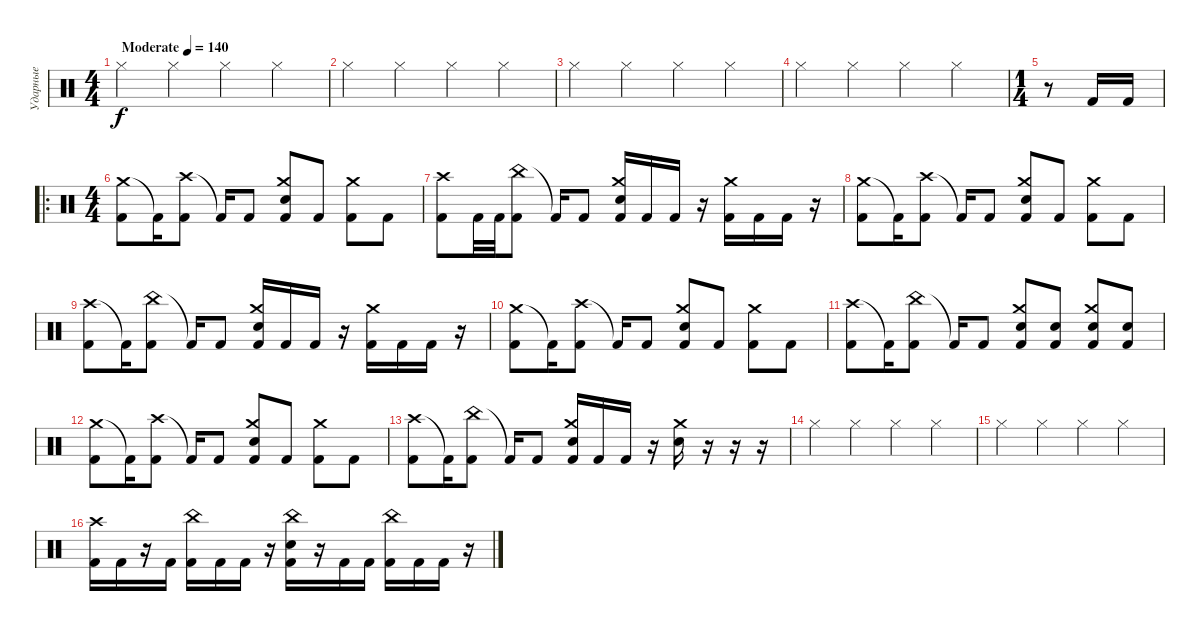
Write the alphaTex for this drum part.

\track ("Ударные" "Ударные") {instrument percussion}
\staff {score}
\articulation defaults
\ts (4 4)
\tempo (140 "Moderate")
\clef neutral
\ks c "Hi-Hat (closed)".4{dy f} "Hi-Hat (closed)".4 "Hi-Hat (closed)".4 "Hi-Hat (closed)".4
|
"Hi-Hat (closed)".4 "Hi-Hat (closed)".4 "Hi-Hat (closed)".4 "Hi-Hat (closed)".4 |
"Hi-Hat (closed)".4 "Hi-Hat (closed)".4 "Hi-Hat (closed)".4 "Hi-Hat (closed)".4 |
"Hi-Hat (closed)".4 "Hi-Hat (closed)".4 "Hi-Hat (closed)".4 "Hi-Hat (closed)".4 |
\ts (1 4)
r.8 "Kick (hit) 2".16 "Kick (hit) 2".16 |
\ro
\ts (4 4)
("Crash medium (hit)" "Kick (hit) 2").8 "Kick (hit) 2"{t}.16 ("Crash high (hit)" "Kick (hit) 2").8 "Kick (hit) 2"{t}.16 "Kick (hit) 2".8 ("Crash medium (hit)" "Electric Snare (hit)" "Kick (hit) 2").8 "Kick (hit) 2".8 ("Crash medium (hit)" "Kick (hit) 2").8 "Kick (hit) 2".8 |
("Crash high (hit)" "Kick (hit) 2").8 "Kick (hit) 2".32 "Kick (hit) 2".32 ("China (hit)" "Kick (hit) 2").8 "Kick (hit) 2"{t}.16 "Kick (hit) 2".8 ("Crash medium (hit)" "Electric Snare (hit)" "Kick (hit) 2").16 "Kick (hit) 2".16 "Kick (hit) 2".16 r.16 ("Crash medium (hit)" "Kick (hit) 2").16 "Kick (hit) 2".16 "Kick (hit) 2".16 r.16 |
("Crash medium (hit)" "Kick (hit) 2").8 "Kick (hit) 2"{t}.16 ("Crash high (hit)" "Kick (hit) 2").8 "Kick (hit) 2"{t}.16 "Kick (hit) 2".8 ("Crash medium (hit)" "Electric Snare (hit)" "Kick (hit) 2").8 "Kick (hit) 2".8 ("Crash medium (hit)" "Kick (hit) 2").8 "Kick (hit) 2".8 |
("Crash high (hit)" "Kick (hit) 2").8 "Kick (hit) 2"{t}.16 ("China (hit)" "Kick (hit) 2").8 "Kick (hit) 2"{t}.16 "Kick (hit) 2".8 ("Crash medium (hit)" "Electric Snare (hit)" "Kick (hit) 2").16 "Kick (hit) 2".16 "Kick (hit) 2".16 r.16 ("Crash medium (hit)" "Kick (hit) 2").16 "Kick (hit) 2".16 "Kick (hit) 2".16 r.16 |
("Crash medium (hit)" "Kick (hit) 2").8 "Kick (hit) 2"{t}.16 ("Crash high (hit)" "Kick (hit) 2").8 "Kick (hit) 2"{t}.16 "Kick (hit) 2".8 ("Crash medium (hit)" "Electric Snare (hit)" "Kick (hit) 2").8 "Kick (hit) 2".8 ("Crash medium (hit)" "Kick (hit) 2").8 "Kick (hit) 2".8 |
("Crash high (hit)" "Kick (hit) 2").8 "Kick (hit) 2"{t}.16 ("China (hit)" "Kick (hit) 2").8 "Kick (hit) 2"{t}.16 "Kick (hit) 2".8 ("Crash medium (hit)" "Electric Snare (hit)" "Kick (hit) 2").8 ("Electric Snare (hit)" "Kick (hit) 2").8 ("Crash medium (hit)" "Electric Snare (hit)" "Kick (hit) 2").8 ("Electric Snare (hit)" "Kick (hit) 2").8 |
("Crash medium (hit)" "Kick (hit) 2").8 "Kick (hit) 2"{t}.16 ("Crash high (hit)" "Kick (hit) 2").8 "Kick (hit) 2"{t}.16 "Kick (hit) 2".8 ("Crash medium (hit)" "Electric Snare (hit)" "Kick (hit) 2").8 "Kick (hit) 2".8 ("Crash medium (hit)" "Kick (hit) 2").8 "Kick (hit) 2".8 |
("Crash high (hit)" "Kick (hit) 2").8 "Kick (hit) 2"{t}.16 ("China (hit)" "Kick (hit) 2").8 "Kick (hit) 2"{t}.16 "Kick (hit) 2".8 ("Crash medium (hit)" "Electric Snare (hit)" "Kick (hit) 2").16 "Kick (hit) 2".16 "Kick (hit) 2".16 r.16 ("Crash medium (hit)" "Electric Snare (hit)").16 r.16 r.16 r.16 |
"Hi-Hat (closed)".4 "Hi-Hat (closed)".4 "Hi-Hat (closed)".4 "Hi-Hat (closed)".4 |
"Hi-Hat (closed)".4 "Hi-Hat (closed)".4 "Hi-Hat (closed)".4 "Hi-Hat (closed)".4 |
("Crash high (hit)" "Kick (hit) 2").16 "Kick (hit) 2".16 r.16 "Kick (hit) 2".16 ("China (hit)" "Kick (hit) 2").16 "Kick (hit) 2".16 "Kick (hit) 2".16 r.16 ("China (hit)" "Electric Snare (hit)" "Kick (hit) 2").16 r.16 "Kick (hit) 2".16 "Kick (hit) 2".16 ("China (hit)" "Kick (hit) 2").16 "Kick (hit) 2".16 "Kick (hit) 2".16 r.16
